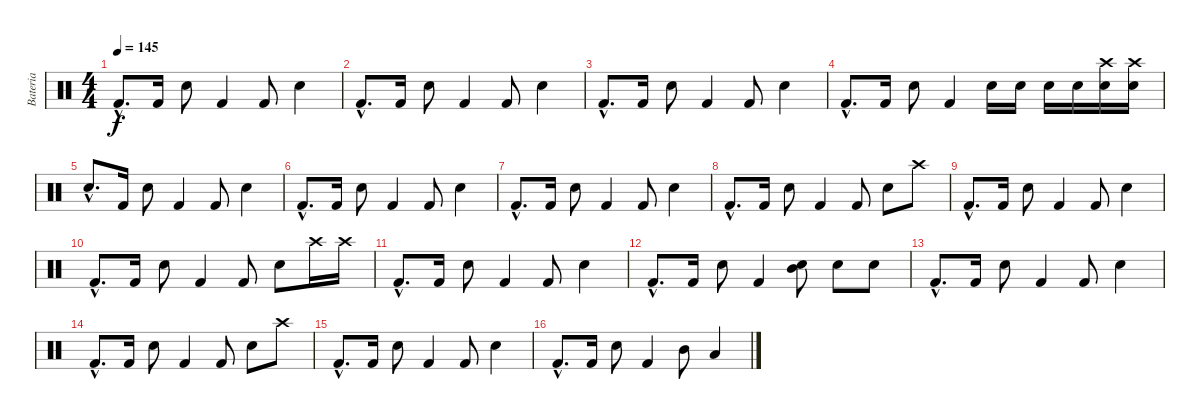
\track (" Bateria" " Bateria") {instrument percussion}
\staff {score}
\articulation defaults
\ts (4 4)
\tempo 145
\clef neutral
\ks c "Kick (hit) 2"{hac}.8{d dy f} "Kick (hit) 2".16 "Snare (hit) 2".8 "Kick (hit) 2".4 "Kick (hit) 2".8 "Snare (hit) 2".4
|
"Kick (hit) 2"{hac}.8{d} "Kick (hit) 2".16 "Snare (hit) 2".8 "Kick (hit) 2".4 "Kick (hit) 2".8 "Snare (hit) 2".4 |
"Kick (hit) 2"{hac}.8{d} "Kick (hit) 2".16 "Snare (hit) 2".8 "Kick (hit) 2".4 "Kick (hit) 2".8 "Snare (hit) 2".4 |
"Kick (hit) 2"{hac}.8{d} "Kick (hit) 2".16 "Snare (hit) 2".8 "Kick (hit) 2".4 "Snare (hit) 2".16 "Snare (hit) 2".16 "Snare (hit) 2".16 "Snare (hit) 2".16 ("Snare (hit) 2" "Crash high (hit)").16 ("Snare (hit) 2" "Crash high (hit)").16 |
"Snare (hit) 2"{hac}.8{d} "Kick (hit) 2".16 "Snare (hit) 2".8 "Kick (hit) 2".4 "Kick (hit) 2".8 "Snare (hit) 2".4 |
"Kick (hit) 2"{hac}.8{d} "Kick (hit) 2".16 "Snare (hit) 2".8 "Kick (hit) 2".4 "Kick (hit) 2".8 "Snare (hit) 2".4 |
"Kick (hit) 2"{hac}.8{d} "Kick (hit) 2".16 "Snare (hit) 2".8 "Kick (hit) 2".4 "Kick (hit) 2".8 "Snare (hit) 2".4 |
"Kick (hit) 2"{hac}.8{d} "Kick (hit) 2".16 "Snare (hit) 2".8 "Kick (hit) 2".4 "Kick (hit) 2".8 "Snare (hit) 2".8 "Crash high (hit)".8 |
"Kick (hit) 2"{hac}.8{d} "Kick (hit) 2".16 "Snare (hit) 2".8 "Kick (hit) 2".4 "Kick (hit) 2".8 "Snare (hit) 2".4 |
"Kick (hit) 2"{hac}.8{d} "Kick (hit) 2".16 "Snare (hit) 2".8 "Kick (hit) 2".4 "Kick (hit) 2".8 "Snare (hit) 2".8 "Crash high (hit)".16 "Crash high (hit)".16 |
"Kick (hit) 2"{hac}.8{d} "Kick (hit) 2".16 "Snare (hit) 2".8 "Kick (hit) 2".4 "Kick (hit) 2".8 "Snare (hit) 2".4 |
"Kick (hit) 2"{hac}.8{d} "Kick (hit) 2".16 "Snare (hit) 2".8 "Kick (hit) 2".4 ("Snare (hit) 2" "Mid Tom (hit)").8 "Snare (hit) 2".8 "Snare (hit) 2".8 |
"Kick (hit) 2"{hac}.8{d} "Kick (hit) 2".16 "Snare (hit) 2".8 "Kick (hit) 2".4 "Kick (hit) 2".8 "Snare (hit) 2".4 |
"Kick (hit) 2"{hac}.8{d} "Kick (hit) 2".16 "Snare (hit) 2".8 "Kick (hit) 2".4 "Kick (hit) 2".8 "Snare (hit) 2".8 "Crash high (hit)".8 |
"Kick (hit) 2"{hac}.8{d} "Kick (hit) 2".16 "Snare (hit) 2".8 "Kick (hit) 2".4 "Kick (hit) 2".8 "Snare (hit) 2".4 |
"Kick (hit) 2"{hac}.8{d} "Kick (hit) 2".16 "Snare (hit) 2".8 "Kick (hit) 2".4 "Mid Tom (hit)".8 "Low Tom (hit)".4
